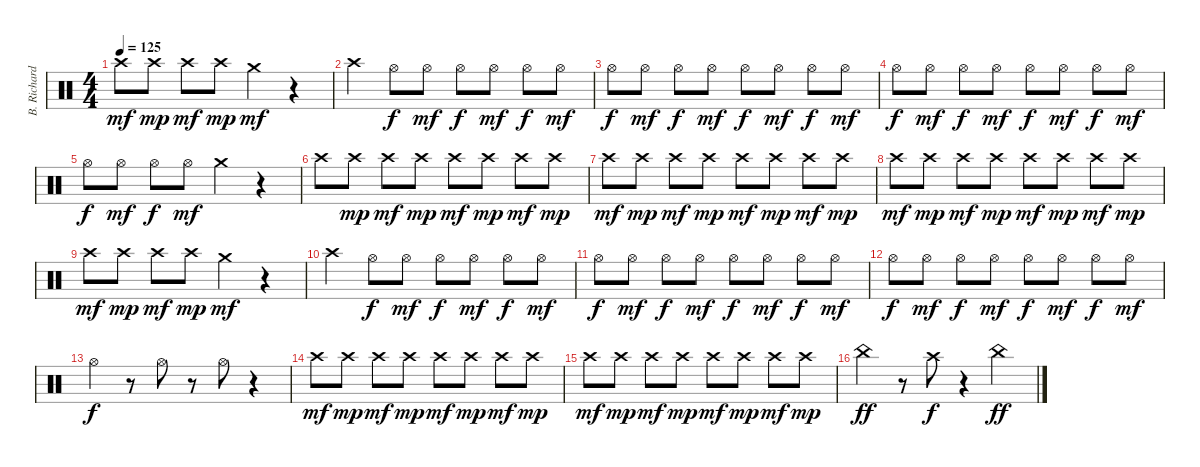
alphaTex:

\track ("B. Richardson Drums" "B. Richard") {instrument percussion}
\staff {score}
\articulation defaults
\ts (4 4)
\tempo 125
\clef neutral
\ks c "Crash high (hit)".8{dy mf} "Crash high (hit)".8{dy mp} "Crash high (hit)".8{dy mf} "Crash high (hit)".8{dy mp} "Crash medium (hit)".4{dy mf}
r.4 |
"Crash high (hit)".4 "Hi-Hat (open)".8{dy f} "Hi-Hat (open)".8{dy mf} "Hi-Hat (open)".8{dy f} "Hi-Hat (open)".8{dy mf} "Hi-Hat (open)".8{dy f} "Hi-Hat (open)".8{dy mf} |
"Hi-Hat (open)".8{dy f} "Hi-Hat (open)".8{dy mf} "Hi-Hat (open)".8{dy f} "Hi-Hat (open)".8{dy mf} "Hi-Hat (open)".8{dy f} "Hi-Hat (open)".8{dy mf} "Hi-Hat (open)".8{dy f} "Hi-Hat (open)".8{dy mf} |
"Hi-Hat (open)".8{dy f} "Hi-Hat (open)".8{dy mf} "Hi-Hat (open)".8{dy f} "Hi-Hat (open)".8{dy mf} "Hi-Hat (open)".8{dy f} "Hi-Hat (open)".8{dy mf} "Hi-Hat (open)".8{dy f} "Hi-Hat (open)".8{dy mf} |
"Hi-Hat (open)".8{dy f} "Hi-Hat (open)".8{dy mf} "Hi-Hat (open)".8{dy f} "Hi-Hat (open)".8{dy mf} "Crash medium (hit)".4 r.4 |
"Crash high (hit)".8 "Crash high (hit)".8{dy mp} "Crash high (hit)".8{dy mf} "Crash high (hit)".8{dy mp} "Crash high (hit)".8{dy mf} "Crash high (hit)".8{dy mp} "Crash high (hit)".8{dy mf} "Crash high (hit)".8{dy mp} |
"Crash high (hit)".8{dy mf} "Crash high (hit)".8{dy mp} "Crash high (hit)".8{dy mf} "Crash high (hit)".8{dy mp} "Crash high (hit)".8{dy mf} "Crash high (hit)".8{dy mp} "Crash high (hit)".8{dy mf} "Crash high (hit)".8{dy mp} |
"Crash high (hit)".8{dy mf} "Crash high (hit)".8{dy mp} "Crash high (hit)".8{dy mf} "Crash high (hit)".8{dy mp} "Crash high (hit)".8{dy mf} "Crash high (hit)".8{dy mp} "Crash high (hit)".8{dy mf} "Crash high (hit)".8{dy mp} |
"Crash high (hit)".8{dy mf} "Crash high (hit)".8{dy mp} "Crash high (hit)".8{dy mf} "Crash high (hit)".8{dy mp} "Crash medium (hit)".4{dy mf} r.4 |
"Crash high (hit)".4 "Hi-Hat (open)".8{dy f} "Hi-Hat (open)".8{dy mf} "Hi-Hat (open)".8{dy f} "Hi-Hat (open)".8{dy mf} "Hi-Hat (open)".8{dy f} "Hi-Hat (open)".8{dy mf} |
"Hi-Hat (open)".8{dy f} "Hi-Hat (open)".8{dy mf} "Hi-Hat (open)".8{dy f} "Hi-Hat (open)".8{dy mf} "Hi-Hat (open)".8{dy f} "Hi-Hat (open)".8{dy mf} "Hi-Hat (open)".8{dy f} "Hi-Hat (open)".8{dy mf} |
"Hi-Hat (open)".8{dy f} "Hi-Hat (open)".8{dy mf} "Hi-Hat (open)".8{dy f} "Hi-Hat (open)".8{dy mf} "Hi-Hat (open)".8{dy f} "Hi-Hat (open)".8{dy mf} "Hi-Hat (open)".8{dy f} "Hi-Hat (open)".8{dy mf} |
"Hi-Hat (open)".4{dy f} r.8 "Hi-Hat (open)".8 r.8 "Hi-Hat (open)".8 r.4 |
"Crash high (hit)".8{dy mf} "Crash high (hit)".8{dy mp} "Crash high (hit)".8{dy mf} "Crash high (hit)".8{dy mp} "Crash high (hit)".8{dy mf} "Crash high (hit)".8{dy mp} "Crash high (hit)".8{dy mf} "Crash high (hit)".8{dy mp} |
"Crash high (hit)".8{dy mf} "Crash high (hit)".8{dy mp} "Crash high (hit)".8{dy mf} "Crash high (hit)".8{dy mp} "Crash high (hit)".8{dy mf} "Crash high (hit)".8{dy mp} "Crash high (hit)".8{dy mf} "Crash high (hit)".8{dy mp} |
"China (hit)".4{dy ff} r.8 "Crash high (hit)".8{dy f} r.4 "China (hit)".4{dy ff}
